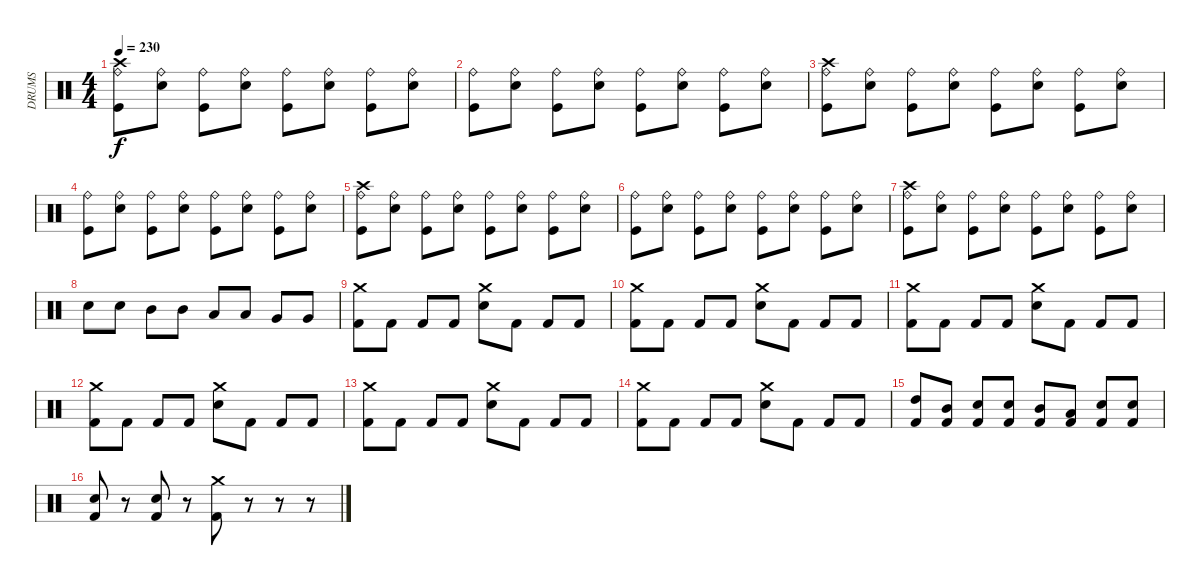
\track ("DRUMS" "DRUMS") {instrument percussion}
\staff {score}
\articulation defaults
\ts (4 4)
\tempo 230
\clef neutral
\ks c
("Crash high (hit)" "Ride (bell)" "Kick (hit)").8{dy f} ("Ride (bell)" "Snare (hit) 2").8 ("Ride (bell)" "Kick (hit)").8 ("Ride (bell)" "Snare (hit) 2").8 ("Ride (bell)" "Kick (hit)").8 ("Ride (bell)" "Snare (hit) 2").8 ("Ride (bell)" "Kick (hit)").8 ("Ride (bell)" "Snare (hit) 2").8 |
("Ride (bell)" "Kick (hit)").8 ("Ride (bell)" "Snare (hit) 2").8 ("Ride (bell)" "Kick (hit)").8 ("Ride (bell)" "Snare (hit) 2").8 ("Ride (bell)" "Kick (hit)").8 ("Ride (bell)" "Snare (hit) 2").8 ("Ride (bell)" "Kick (hit)").8 ("Ride (bell)" "Snare (hit) 2").8 |
("Crash high (hit)" "Ride (bell)" "Kick (hit)").8 ("Ride (bell)" "Snare (hit) 2").8 ("Ride (bell)" "Kick (hit)").8 ("Ride (bell)" "Snare (hit) 2").8 ("Ride (bell)" "Kick (hit)").8 ("Ride (bell)" "Snare (hit) 2").8 ("Ride (bell)" "Kick (hit)").8 ("Ride (bell)" "Snare (hit) 2").8 |
("Ride (bell)" "Kick (hit)").8 ("Ride (bell)" "Snare (hit) 2").8 ("Ride (bell)" "Kick (hit)").8 ("Ride (bell)" "Snare (hit) 2").8 ("Ride (bell)" "Kick (hit)").8 ("Ride (bell)" "Snare (hit) 2").8 ("Ride (bell)" "Kick (hit)").8 ("Ride (bell)" "Snare (hit) 2").8 |
("Crash high (hit)" "Ride (bell)" "Kick (hit)").8 ("Ride (bell)" "Snare (hit) 2").8 ("Ride (bell)" "Kick (hit)").8 ("Ride (bell)" "Snare (hit) 2").8 ("Ride (bell)" "Kick (hit)").8 ("Ride (bell)" "Snare (hit) 2").8 ("Ride (bell)" "Kick (hit)").8 ("Ride (bell)" "Snare (hit) 2").8 |
("Ride (bell)" "Kick (hit)").8 ("Ride (bell)" "Snare (hit) 2").8 ("Ride (bell)" "Kick (hit)").8 ("Ride (bell)" "Snare (hit) 2").8 ("Ride (bell)" "Kick (hit)").8 ("Ride (bell)" "Snare (hit) 2").8 ("Ride (bell)" "Kick (hit)").8 ("Ride (bell)" "Snare (hit) 2").8 |
("Crash high (hit)" "Ride (bell)" "Kick (hit)").8 ("Ride (bell)" "Snare (hit) 2").8 ("Ride (bell)" "Kick (hit)").8 ("Ride (bell)" "Snare (hit) 2").8 ("Ride (bell)" "Kick (hit)").8 ("Ride (bell)" "Snare (hit) 2").8 ("Ride (bell)" "Kick (hit)").8 ("Ride (bell)" "Snare (hit) 2").8 |
"Snare (hit) 2".8 "Snare (hit) 2".8 "Mid Tom (hit)".8 "Mid Tom (hit)".8 "Low Tom (hit)".8 "Low Tom (hit)".8 "Very Low Tom (hit)".8 "Very Low Tom (hit)".8 |
("Crash medium (hit)" "Kick (hit) 2").8 "Kick (hit) 2".8 "Kick (hit) 2".8 "Kick (hit) 2".8 ("Crash medium (hit)" "Snare (hit) 2").8 "Kick (hit) 2".8 "Kick (hit) 2".8 "Kick (hit) 2".8 |
("Crash medium (hit)" "Kick (hit) 2").8 "Kick (hit) 2".8 "Kick (hit) 2".8 "Kick (hit) 2".8 ("Crash medium (hit)" "Snare (hit) 2").8 "Kick (hit) 2".8 "Kick (hit) 2".8 "Kick (hit) 2".8 |
("Crash medium (hit)" "Kick (hit) 2").8 "Kick (hit) 2".8 "Kick (hit) 2".8 "Kick (hit) 2".8 ("Crash medium (hit)" "Snare (hit) 2").8 "Kick (hit) 2".8 "Kick (hit) 2".8 "Kick (hit) 2".8 |
("Crash medium (hit)" "Kick (hit) 2").8 "Kick (hit) 2".8 "Kick (hit) 2".8 "Kick (hit) 2".8 ("Crash medium (hit)" "Snare (hit) 2").8 "Kick (hit) 2".8 "Kick (hit) 2".8 "Kick (hit) 2".8 |
("Crash medium (hit)" "Kick (hit) 2").8 "Kick (hit) 2".8 "Kick (hit) 2".8 "Kick (hit) 2".8 ("Crash medium (hit)" "Snare (hit) 2").8 "Kick (hit) 2".8 "Kick (hit) 2".8 "Kick (hit) 2".8 |
("Crash medium (hit)" "Kick (hit) 2").8 "Kick (hit) 2".8 "Kick (hit) 2".8 "Kick (hit) 2".8 ("Crash medium (hit)" "Snare (hit) 2").8 "Kick (hit) 2".8 "Kick (hit) 2".8 "Kick (hit) 2".8 |
("High Tom (hit)" "Kick (hit) 2").8 ("Mid Tom (hit)" "Kick (hit) 2").8 ("Snare (hit) 2" "Kick (hit) 2").8 ("Snare (hit) 2" "Kick (hit) 2").8 ("Mid Tom (hit)" "Kick (hit) 2").8 ("Low Tom (hit)" "Kick (hit) 2").8 ("Snare (hit) 2" "Kick (hit) 2").8 ("Snare (hit) 2" "Kick (hit) 2").8 |
("Snare (hit) 2" "Kick (hit) 2").8 r.8 ("Snare (hit) 2" "Kick (hit) 2").8 r.8 ("Crash medium (hit)" "Kick (hit) 2").8 r.8 r.8 r.8
